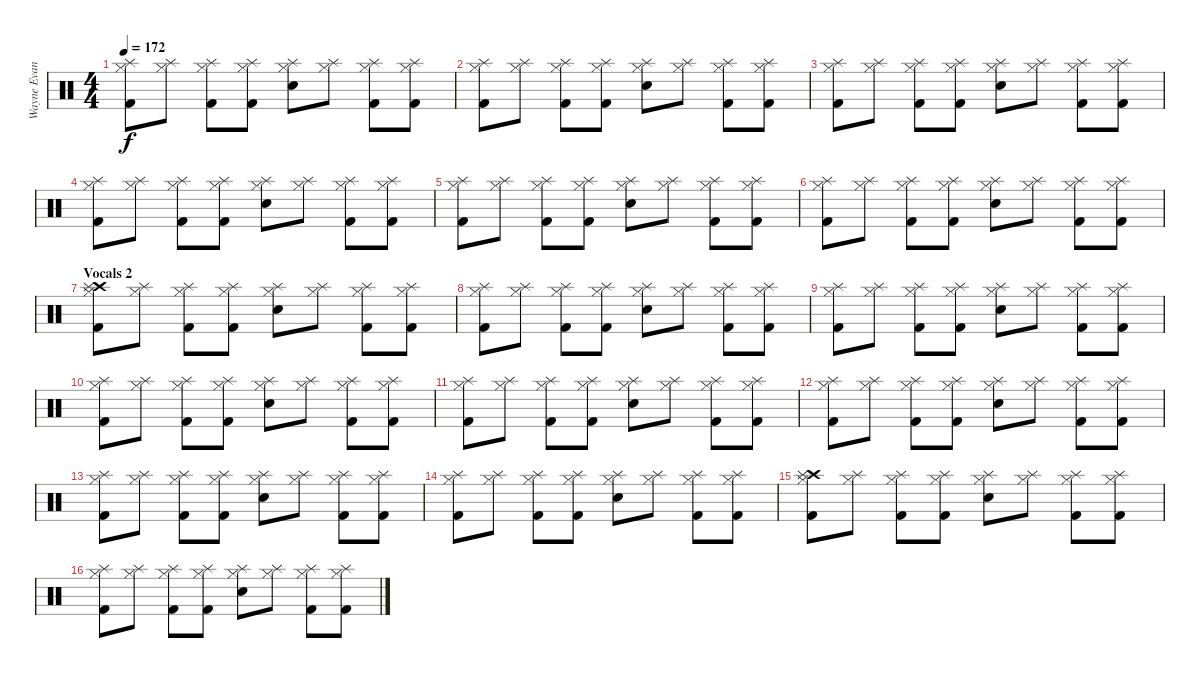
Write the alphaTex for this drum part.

\track ("Wayne Evans  " "Wayne Evan") {instrument percussion}
\staff {score}
\articulation defaults
\ts (4 4)
\tempo 172
\clef neutral
\ks c
("Splash (hit)" "Hi-Hat (closed)" "Kick (hit) 2").8{dy f} ("Splash (hit)" "Hi-Hat (closed)").8 ("Splash (hit)" "Hi-Hat (closed)" "Kick (hit) 2").8 ("Splash (hit)" "Hi-Hat (closed)" "Kick (hit) 2").8 ("Splash (hit)" "Hi-Hat (closed)" "Electric Snare (hit)").8 ("Splash (hit)" "Hi-Hat (closed)").8 ("Splash (hit)" "Hi-Hat (closed)" "Kick (hit) 2").8 ("Splash (hit)" "Hi-Hat (closed)" "Kick (hit) 2").8 |
("Splash (hit)" "Hi-Hat (closed)" "Kick (hit) 2").8 ("Splash (hit)" "Hi-Hat (closed)").8 ("Splash (hit)" "Hi-Hat (closed)" "Kick (hit) 2").8 ("Splash (hit)" "Hi-Hat (closed)" "Kick (hit) 2").8 ("Splash (hit)" "Hi-Hat (closed)" "Electric Snare (hit)").8 ("Splash (hit)" "Hi-Hat (closed)").8 ("Splash (hit)" "Hi-Hat (closed)" "Kick (hit) 2").8 ("Splash (hit)" "Hi-Hat (closed)" "Kick (hit) 2").8 |
("Splash (hit)" "Hi-Hat (closed)" "Kick (hit) 2").8 ("Splash (hit)" "Hi-Hat (closed)").8 ("Splash (hit)" "Hi-Hat (closed)" "Kick (hit) 2").8 ("Splash (hit)" "Hi-Hat (closed)" "Kick (hit) 2").8 ("Splash (hit)" "Hi-Hat (closed)" "Electric Snare (hit)").8 ("Splash (hit)" "Hi-Hat (closed)").8 ("Splash (hit)" "Hi-Hat (closed)" "Kick (hit) 2").8 ("Splash (hit)" "Hi-Hat (closed)" "Kick (hit) 2").8 |
("Splash (hit)" "Hi-Hat (closed)" "Kick (hit) 2").8 ("Splash (hit)" "Hi-Hat (closed)").8 ("Splash (hit)" "Hi-Hat (closed)" "Kick (hit) 2").8 ("Splash (hit)" "Hi-Hat (closed)" "Kick (hit) 2").8 ("Splash (hit)" "Hi-Hat (closed)" "Electric Snare (hit)").8 ("Splash (hit)" "Hi-Hat (closed)").8 ("Splash (hit)" "Hi-Hat (closed)" "Kick (hit) 2").8 ("Splash (hit)" "Hi-Hat (closed)" "Kick (hit) 2").8 |
("Splash (hit)" "Hi-Hat (closed)" "Kick (hit) 2").8 ("Splash (hit)" "Hi-Hat (closed)").8 ("Splash (hit)" "Hi-Hat (closed)" "Kick (hit) 2").8 ("Splash (hit)" "Hi-Hat (closed)" "Kick (hit) 2").8 ("Splash (hit)" "Hi-Hat (closed)" "Electric Snare (hit)").8 ("Splash (hit)" "Hi-Hat (closed)").8 ("Splash (hit)" "Hi-Hat (closed)" "Kick (hit) 2").8 ("Splash (hit)" "Hi-Hat (closed)" "Kick (hit) 2").8 |
("Splash (hit)" "Hi-Hat (closed)" "Kick (hit) 2").8 ("Splash (hit)" "Hi-Hat (closed)").8 ("Splash (hit)" "Hi-Hat (closed)" "Kick (hit) 2").8 ("Splash (hit)" "Hi-Hat (closed)" "Kick (hit) 2").8 ("Splash (hit)" "Hi-Hat (closed)" "Electric Snare (hit)").8 ("Splash (hit)" "Hi-Hat (closed)").8 ("Splash (hit)" "Hi-Hat (closed)" "Kick (hit) 2").8 ("Splash (hit)" "Hi-Hat (closed)" "Kick (hit) 2").8 |
\section ("" "Vocals 2")
("Crash high (hit)" "Splash (hit)" "Hi-Hat (closed)" "Kick (hit) 2").8 ("Splash (hit)" "Hi-Hat (closed)").8 ("Splash (hit)" "Hi-Hat (closed)" "Kick (hit) 2").8 ("Splash (hit)" "Hi-Hat (closed)" "Kick (hit) 2").8 ("Splash (hit)" "Hi-Hat (closed)" "Electric Snare (hit)").8 ("Splash (hit)" "Hi-Hat (closed)").8 ("Splash (hit)" "Hi-Hat (closed)" "Kick (hit) 2").8 ("Splash (hit)" "Hi-Hat (closed)" "Kick (hit) 2").8 |
("Splash (hit)" "Hi-Hat (closed)" "Kick (hit) 2").8 ("Splash (hit)" "Hi-Hat (closed)").8 ("Splash (hit)" "Hi-Hat (closed)" "Kick (hit) 2").8 ("Splash (hit)" "Hi-Hat (closed)" "Kick (hit) 2").8 ("Splash (hit)" "Hi-Hat (closed)" "Electric Snare (hit)").8 ("Splash (hit)" "Hi-Hat (closed)").8 ("Splash (hit)" "Hi-Hat (closed)" "Kick (hit) 2").8 ("Splash (hit)" "Hi-Hat (closed)" "Kick (hit) 2").8 |
("Splash (hit)" "Hi-Hat (closed)" "Kick (hit) 2").8 ("Splash (hit)" "Hi-Hat (closed)").8 ("Splash (hit)" "Hi-Hat (closed)" "Kick (hit) 2").8 ("Splash (hit)" "Hi-Hat (closed)" "Kick (hit) 2").8 ("Splash (hit)" "Hi-Hat (closed)" "Electric Snare (hit)").8 ("Splash (hit)" "Hi-Hat (closed)").8 ("Splash (hit)" "Hi-Hat (closed)" "Kick (hit) 2").8 ("Splash (hit)" "Hi-Hat (closed)" "Kick (hit) 2").8 |
("Splash (hit)" "Hi-Hat (closed)" "Kick (hit) 2").8 ("Splash (hit)" "Hi-Hat (closed)").8 ("Splash (hit)" "Hi-Hat (closed)" "Kick (hit) 2").8 ("Splash (hit)" "Hi-Hat (closed)" "Kick (hit) 2").8 ("Splash (hit)" "Hi-Hat (closed)" "Electric Snare (hit)").8 ("Splash (hit)" "Hi-Hat (closed)").8 ("Splash (hit)" "Hi-Hat (closed)" "Kick (hit) 2").8 ("Splash (hit)" "Hi-Hat (closed)" "Kick (hit) 2").8 |
("Splash (hit)" "Hi-Hat (closed)" "Kick (hit) 2").8 ("Splash (hit)" "Hi-Hat (closed)").8 ("Splash (hit)" "Hi-Hat (closed)" "Kick (hit) 2").8 ("Splash (hit)" "Hi-Hat (closed)" "Kick (hit) 2").8 ("Splash (hit)" "Hi-Hat (closed)" "Electric Snare (hit)").8 ("Splash (hit)" "Hi-Hat (closed)").8 ("Splash (hit)" "Hi-Hat (closed)" "Kick (hit) 2").8 ("Splash (hit)" "Hi-Hat (closed)" "Kick (hit) 2").8 |
("Splash (hit)" "Hi-Hat (closed)" "Kick (hit) 2").8 ("Splash (hit)" "Hi-Hat (closed)").8 ("Splash (hit)" "Hi-Hat (closed)" "Kick (hit) 2").8 ("Splash (hit)" "Hi-Hat (closed)" "Kick (hit) 2").8 ("Splash (hit)" "Hi-Hat (closed)" "Electric Snare (hit)").8 ("Splash (hit)" "Hi-Hat (closed)").8 ("Splash (hit)" "Hi-Hat (closed)" "Kick (hit) 2").8 ("Splash (hit)" "Hi-Hat (closed)" "Kick (hit) 2").8 |
("Splash (hit)" "Hi-Hat (closed)" "Kick (hit) 2").8 ("Splash (hit)" "Hi-Hat (closed)").8 ("Splash (hit)" "Hi-Hat (closed)" "Kick (hit) 2").8 ("Splash (hit)" "Hi-Hat (closed)" "Kick (hit) 2").8 ("Splash (hit)" "Hi-Hat (closed)" "Electric Snare (hit)").8 ("Splash (hit)" "Hi-Hat (closed)").8 ("Splash (hit)" "Hi-Hat (closed)" "Kick (hit) 2").8 ("Splash (hit)" "Hi-Hat (closed)" "Kick (hit) 2").8 |
("Splash (hit)" "Hi-Hat (closed)" "Kick (hit) 2").8 ("Splash (hit)" "Hi-Hat (closed)").8 ("Splash (hit)" "Hi-Hat (closed)" "Kick (hit) 2").8 ("Splash (hit)" "Hi-Hat (closed)" "Kick (hit) 2").8 ("Splash (hit)" "Hi-Hat (closed)" "Electric Snare (hit)").8 ("Splash (hit)" "Hi-Hat (closed)").8 ("Splash (hit)" "Hi-Hat (closed)" "Kick (hit) 2").8 ("Splash (hit)" "Hi-Hat (closed)" "Kick (hit) 2").8 |
("Crash high (hit)" "Splash (hit)" "Hi-Hat (closed)" "Kick (hit) 2").8 ("Splash (hit)" "Hi-Hat (closed)").8 ("Splash (hit)" "Hi-Hat (closed)" "Kick (hit) 2").8 ("Splash (hit)" "Hi-Hat (closed)" "Kick (hit) 2").8 ("Splash (hit)" "Hi-Hat (closed)" "Electric Snare (hit)").8 ("Splash (hit)" "Hi-Hat (closed)").8 ("Splash (hit)" "Hi-Hat (closed)" "Kick (hit) 2").8 ("Splash (hit)" "Hi-Hat (closed)" "Kick (hit) 2").8 |
("Splash (hit)" "Hi-Hat (closed)" "Kick (hit) 2").8 ("Splash (hit)" "Hi-Hat (closed)").8 ("Splash (hit)" "Hi-Hat (closed)" "Kick (hit) 2").8 ("Splash (hit)" "Hi-Hat (closed)" "Kick (hit) 2").8 ("Splash (hit)" "Hi-Hat (closed)" "Electric Snare (hit)").8 ("Splash (hit)" "Hi-Hat (closed)").8 ("Splash (hit)" "Hi-Hat (closed)" "Kick (hit) 2").8 ("Splash (hit)" "Hi-Hat (closed)" "Kick (hit) 2").8
